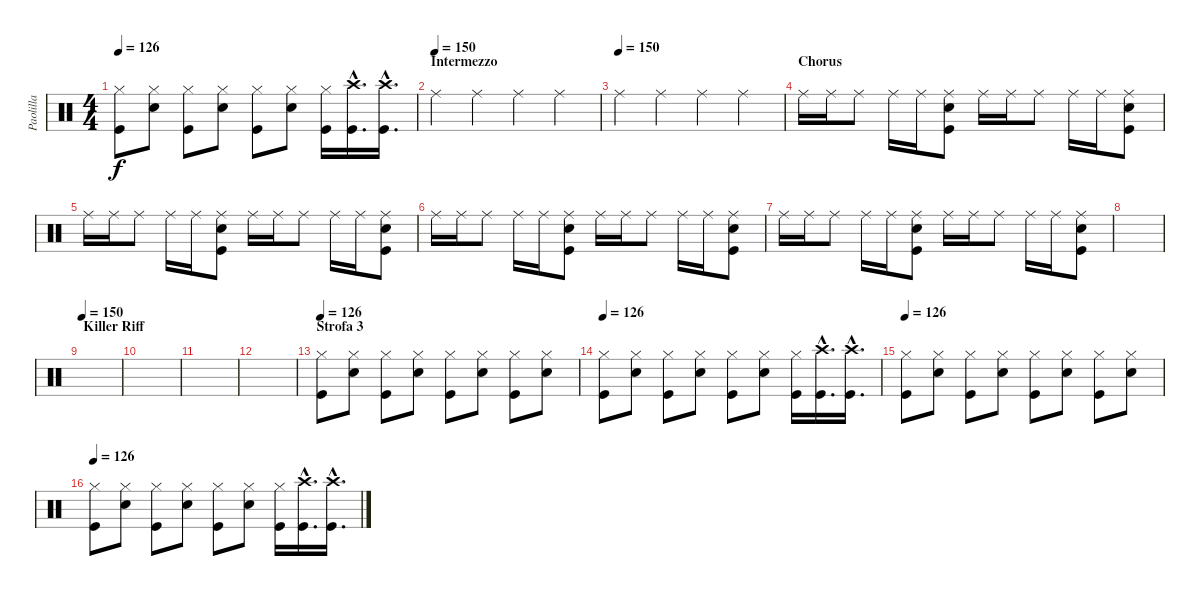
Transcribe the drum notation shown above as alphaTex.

\track ("Paolilla" "Paolilla") {instrument percussion}
\staff {score}
\articulation defaults
\ts (4 4)
\tempo 126
\clef neutral
\ks c
("Hi-Hat (closed)" "Kick (hit)").8{dy f} ("Hi-Hat (closed)" "Snare (hit) 2").8 ("Hi-Hat (closed)" "Kick (hit)").8 ("Hi-Hat (closed)" "Snare (hit) 2").8 ("Hi-Hat (closed)" "Kick (hit)").8 ("Hi-Hat (closed)" "Snare (hit) 2").8 ("Hi-Hat (closed)" "Kick (hit)").16 ("Crash high (hit)"{hac} "Kick (hit)"{hac}).16{d} ("Crash high (hit)"{hac} "Kick (hit)"{hac}).16{d} |
\section ("" "Intermezzo")
\tempo (150)
"Ride (middle)".4 "Ride (middle)".4 "Ride (middle)".4 "Ride (middle)".4 |
\tempo (150)
"Ride (middle)".4 "Ride (middle)".4 "Ride (middle)".4 "Ride (middle)".4 |
\section ("" "Chorus")
"Ride (middle)".16 "Ride (middle)".16 "Ride (middle)".8 "Ride (middle)".16 "Ride (middle)".16 ("Ride (middle)" "Snare (hit) 2" "Kick (hit)").8 "Ride (middle)".16 "Ride (middle)".16 "Ride (middle)".8 "Ride (middle)".16 "Ride (middle)".16 ("Ride (middle)" "Snare (hit) 2" "Kick (hit)").8 |
"Ride (middle)".16 "Ride (middle)".16 "Ride (middle)".8 "Ride (middle)".16 "Ride (middle)".16 ("Ride (middle)" "Snare (hit) 2" "Kick (hit)").8 "Ride (middle)".16 "Ride (middle)".16 "Ride (middle)".8 "Ride (middle)".16 "Ride (middle)".16 ("Ride (middle)" "Snare (hit) 2" "Kick (hit)").8 |
"Ride (middle)".16 "Ride (middle)".16 "Ride (middle)".8 "Ride (middle)".16 "Ride (middle)".16 ("Ride (middle)" "Snare (hit) 2" "Kick (hit)").8 "Ride (middle)".16 "Ride (middle)".16 "Ride (middle)".8 "Ride (middle)".16 "Ride (middle)".16 ("Ride (middle)" "Snare (hit) 2" "Kick (hit)").8 |
"Ride (middle)".16 "Ride (middle)".16 "Ride (middle)".8 "Ride (middle)".16 "Ride (middle)".16 ("Ride (middle)" "Snare (hit) 2" "Kick (hit)").8 "Ride (middle)".16 "Ride (middle)".16 "Ride (middle)".8 "Ride (middle)".16 "Ride (middle)".16 ("Ride (middle)" "Snare (hit) 2" "Kick (hit)").8 |
|
\section ("" "Killer Riff")
\tempo 150
|
|
|
|
\section ("" "Strofa 3")
\tempo 126
("Hi-Hat (closed)" "Kick (hit)").8 ("Hi-Hat (closed)" "Snare (hit) 2").8 ("Hi-Hat (closed)" "Kick (hit)").8 ("Hi-Hat (closed)" "Snare (hit) 2").8 ("Hi-Hat (closed)" "Kick (hit)").8 ("Hi-Hat (closed)" "Snare (hit) 2").8 ("Hi-Hat (closed)" "Kick (hit)").8 ("Hi-Hat (closed)" "Snare (hit) 2").8 |
\tempo 126
("Hi-Hat (closed)" "Kick (hit)").8 ("Hi-Hat (closed)" "Snare (hit) 2").8 ("Hi-Hat (closed)" "Kick (hit)").8 ("Hi-Hat (closed)" "Snare (hit) 2").8 ("Hi-Hat (closed)" "Kick (hit)").8 ("Hi-Hat (closed)" "Snare (hit) 2").8 ("Hi-Hat (closed)" "Kick (hit)").16 ("Crash high (hit)"{hac} "Kick (hit)"{hac}).16{d} ("Crash high (hit)"{hac} "Kick (hit)"{hac}).16{d} |
\tempo 126
("Hi-Hat (closed)" "Kick (hit)").8 ("Hi-Hat (closed)" "Snare (hit) 2").8 ("Hi-Hat (closed)" "Kick (hit)").8 ("Hi-Hat (closed)" "Snare (hit) 2").8 ("Hi-Hat (closed)" "Kick (hit)").8 ("Hi-Hat (closed)" "Snare (hit) 2").8 ("Hi-Hat (closed)" "Kick (hit)").8 ("Hi-Hat (closed)" "Snare (hit) 2").8 |
\tempo 126
("Hi-Hat (closed)" "Kick (hit)").8 ("Hi-Hat (closed)" "Snare (hit) 2").8 ("Hi-Hat (closed)" "Kick (hit)").8 ("Hi-Hat (closed)" "Snare (hit) 2").8 ("Hi-Hat (closed)" "Kick (hit)").8 ("Hi-Hat (closed)" "Snare (hit) 2").8 ("Hi-Hat (closed)" "Kick (hit)").16 ("Crash high (hit)"{hac} "Kick (hit)"{hac}).16{d} ("Crash high (hit)"{hac} "Kick (hit)"{hac}).16{d}
